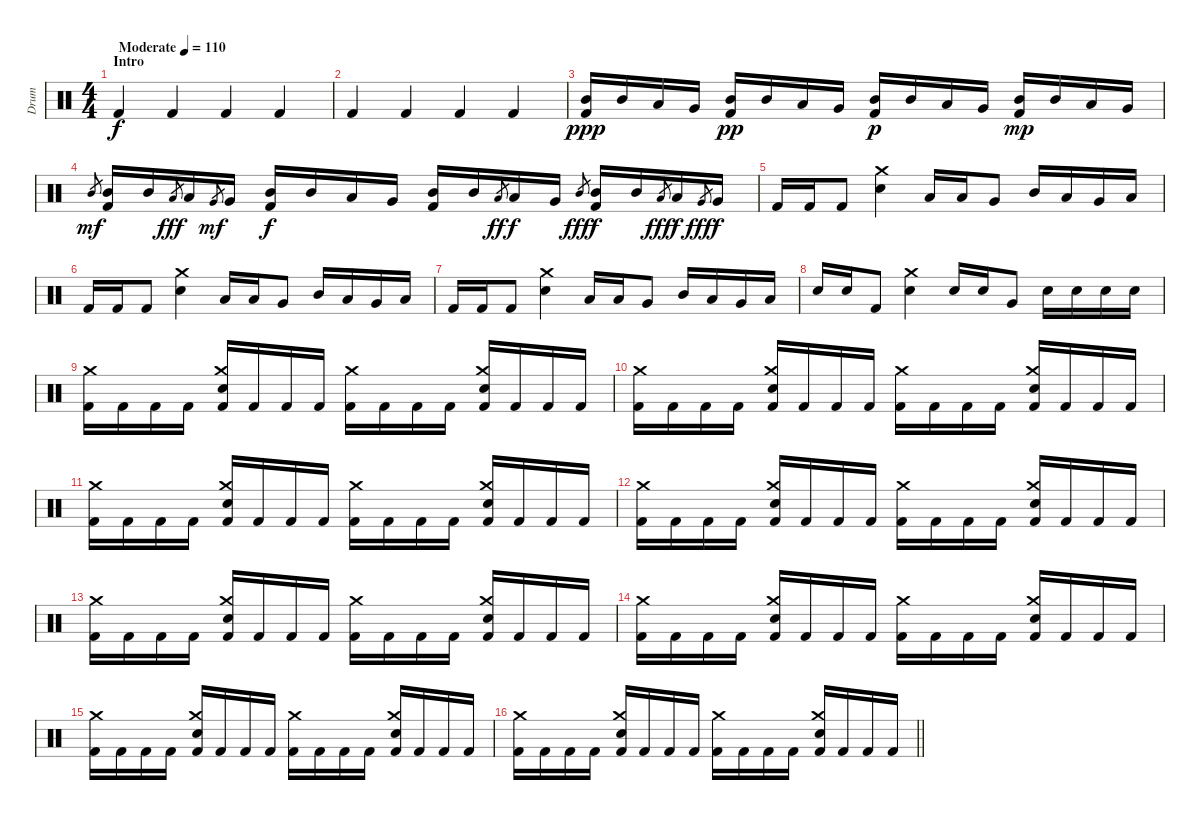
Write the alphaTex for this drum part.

\track ("Drum" "Drum") {instrument percussion}
\staff {score}
\articulation defaults
\ts (4 4)
\section ("" "Intro")
\tempo (110 "Moderate")
\clef neutral
\ks c "Kick (hit) 2".4{dy f} "Kick (hit) 2".4 "Kick (hit) 2".4 "Kick (hit) 2".4
|
"Kick (hit) 2".4 "Kick (hit) 2".4 "Kick (hit) 2".4 "Kick (hit) 2".4 |
("Mid Tom (hit)" "Kick (hit) 2").16{dy ppp} "Mid Tom (hit)".16 "Low Tom (hit)".16 "Very Low Tom (hit)".16 ("Mid Tom (hit)" "Kick (hit) 2").16{dy pp} "Mid Tom (hit)".16 "Low Tom (hit)".16 "Very Low Tom (hit)".16 ("Mid Tom (hit)" "Kick (hit) 2").16{dy p} "Mid Tom (hit)".16 "Low Tom (hit)".16 "Very Low Tom (hit)".16 ("Mid Tom (hit)" "Kick (hit) 2").16{dy mp} "Mid Tom (hit)".16 "Low Tom (hit)".16 "Very Low Tom (hit)".16 |
"Mid Tom (hit)".8{gr dy mf} ("Mid Tom (hit)" "Kick (hit) 2").16 "Mid Tom (hit)".16 "Low Tom (hit)".8{gr dy fff} "Low Tom (hit)".16 "Very Low Tom (hit)".8{gr dy mf} "Very Low Tom (hit)".16 ("Mid Tom (hit)" "Kick (hit) 2").16{dy f} "Mid Tom (hit)".16 "Low Tom (hit)".16 "Very Low Tom (hit)".16 ("Mid Tom (hit)" "Kick (hit) 2").16 "Mid Tom (hit)".16 "Low Tom (hit)".8{gr dy ff} "Low Tom (hit)".16{dy f} "Very Low Tom (hit)".16 "Mid Tom (hit)".8{gr dy fff} ("Mid Tom (hit)" "Kick (hit) 2").16{dy f} "Mid Tom (hit)".16 "Low Tom (hit)".8{gr dy fff} "Low Tom (hit)".16{dy f} "Very Low Tom (hit)".8{gr dy fff} "Very Low Tom (hit)".16{dy f} |
"Kick (hit) 2".16 "Kick (hit) 2".16 "Kick (hit) 2".8 ("Crash medium (hit)" "Electric Snare (hit)").4 "Low Floor Tom (hit)".16 "Low Floor Tom (hit)".16 "Very Low Tom (hit)".8 "Mid Tom (hit)".16 "Low Tom (hit)".16 "Very Low Tom (hit)".16 "Low Floor Tom (hit)".16 |
"Kick (hit) 2".16 "Kick (hit) 2".16 "Kick (hit) 2".8 ("Crash medium (hit)" "Electric Snare (hit)").4 "Low Floor Tom (hit)".16 "Low Floor Tom (hit)".16 "Very Low Tom (hit)".8 "Mid Tom (hit)".16 "Low Tom (hit)".16 "Very Low Tom (hit)".16 "Low Floor Tom (hit)".16 |
"Kick (hit) 2".16 "Kick (hit) 2".16 "Kick (hit) 2".8 ("Crash medium (hit)" "Electric Snare (hit)").4 "Low Floor Tom (hit)".16 "Low Floor Tom (hit)".16 "Very Low Tom (hit)".8 "Mid Tom (hit)".16 "Low Tom (hit)".16 "Very Low Tom (hit)".16 "Low Floor Tom (hit)".16 |
"Electric Snare (hit)".16 "Electric Snare (hit)".16 "Kick (hit) 2".8 ("Crash medium (hit)" "Electric Snare (hit)").4 "Electric Snare (hit)".16 "Electric Snare (hit)".16 "Very Low Tom (hit)".8 "Electric Snare (hit)".16 "Electric Snare (hit)".16 "Electric Snare (hit)".16 "Electric Snare (hit)".16 |
("Crash medium (hit)" "Kick (hit) 2").16 "Kick (hit) 2".16 "Kick (hit) 2".16 "Kick (hit) 2".16 ("Crash medium (hit)" "Electric Snare (hit)" "Kick (hit) 2").16 "Kick (hit) 2".16 "Kick (hit) 2".16 "Kick (hit) 2".16 ("Crash medium (hit)" "Kick (hit) 2").16 "Kick (hit) 2".16 "Kick (hit) 2".16 "Kick (hit) 2".16 ("Crash medium (hit)" "Electric Snare (hit)" "Kick (hit) 2").16 "Kick (hit) 2".16 "Kick (hit) 2".16 "Kick (hit) 2".16 |
("Crash medium (hit)" "Kick (hit) 2").16 "Kick (hit) 2".16 "Kick (hit) 2".16 "Kick (hit) 2".16 ("Crash medium (hit)" "Electric Snare (hit)" "Kick (hit) 2").16 "Kick (hit) 2".16 "Kick (hit) 2".16 "Kick (hit) 2".16 ("Crash medium (hit)" "Kick (hit) 2").16 "Kick (hit) 2".16 "Kick (hit) 2".16 "Kick (hit) 2".16 ("Crash medium (hit)" "Electric Snare (hit)" "Kick (hit) 2").16 "Kick (hit) 2".16 "Kick (hit) 2".16 "Kick (hit) 2".16 |
("Crash medium (hit)" "Kick (hit) 2").16 "Kick (hit) 2".16 "Kick (hit) 2".16 "Kick (hit) 2".16 ("Crash medium (hit)" "Electric Snare (hit)" "Kick (hit) 2").16 "Kick (hit) 2".16 "Kick (hit) 2".16 "Kick (hit) 2".16 ("Crash medium (hit)" "Kick (hit) 2").16 "Kick (hit) 2".16 "Kick (hit) 2".16 "Kick (hit) 2".16 ("Crash medium (hit)" "Electric Snare (hit)" "Kick (hit) 2").16 "Kick (hit) 2".16 "Kick (hit) 2".16 "Kick (hit) 2".16 |
("Crash medium (hit)" "Kick (hit) 2").16 "Kick (hit) 2".16 "Kick (hit) 2".16 "Kick (hit) 2".16 ("Crash medium (hit)" "Electric Snare (hit)" "Kick (hit) 2").16 "Kick (hit) 2".16 "Kick (hit) 2".16 "Kick (hit) 2".16 ("Crash medium (hit)" "Kick (hit) 2").16 "Kick (hit) 2".16 "Kick (hit) 2".16 "Kick (hit) 2".16 ("Crash medium (hit)" "Electric Snare (hit)" "Kick (hit) 2").16 "Kick (hit) 2".16 "Kick (hit) 2".16 "Kick (hit) 2".16 |
("Crash medium (hit)" "Kick (hit) 2").16 "Kick (hit) 2".16 "Kick (hit) 2".16 "Kick (hit) 2".16 ("Crash medium (hit)" "Electric Snare (hit)" "Kick (hit) 2").16 "Kick (hit) 2".16 "Kick (hit) 2".16 "Kick (hit) 2".16 ("Crash medium (hit)" "Kick (hit) 2").16 "Kick (hit) 2".16 "Kick (hit) 2".16 "Kick (hit) 2".16 ("Crash medium (hit)" "Electric Snare (hit)" "Kick (hit) 2").16 "Kick (hit) 2".16 "Kick (hit) 2".16 "Kick (hit) 2".16 |
("Crash medium (hit)" "Kick (hit) 2").16 "Kick (hit) 2".16 "Kick (hit) 2".16 "Kick (hit) 2".16 ("Crash medium (hit)" "Electric Snare (hit)" "Kick (hit) 2").16 "Kick (hit) 2".16 "Kick (hit) 2".16 "Kick (hit) 2".16 ("Crash medium (hit)" "Kick (hit) 2").16 "Kick (hit) 2".16 "Kick (hit) 2".16 "Kick (hit) 2".16 ("Crash medium (hit)" "Electric Snare (hit)" "Kick (hit) 2").16 "Kick (hit) 2".16 "Kick (hit) 2".16 "Kick (hit) 2".16 |
("Crash medium (hit)" "Kick (hit) 2").16 "Kick (hit) 2".16 "Kick (hit) 2".16 "Kick (hit) 2".16 ("Crash medium (hit)" "Electric Snare (hit)" "Kick (hit) 2").16 "Kick (hit) 2".16 "Kick (hit) 2".16 "Kick (hit) 2".16 ("Crash medium (hit)" "Kick (hit) 2").16 "Kick (hit) 2".16 "Kick (hit) 2".16 "Kick (hit) 2".16 ("Crash medium (hit)" "Electric Snare (hit)" "Kick (hit) 2").16 "Kick (hit) 2".16 "Kick (hit) 2".16 "Kick (hit) 2".16 |
\barLineRight lightlight
("Crash medium (hit)" "Kick (hit) 2").16 "Kick (hit) 2".16 "Kick (hit) 2".16 "Kick (hit) 2".16 ("Crash medium (hit)" "Electric Snare (hit)" "Kick (hit) 2").16 "Kick (hit) 2".16 "Kick (hit) 2".16 "Kick (hit) 2".16 ("Crash medium (hit)" "Kick (hit) 2").16 "Kick (hit) 2".16 "Kick (hit) 2".16 "Kick (hit) 2".16 ("Crash medium (hit)" "Electric Snare (hit)" "Kick (hit) 2").16 "Kick (hit) 2".16 "Kick (hit) 2".16 "Kick (hit) 2".16
